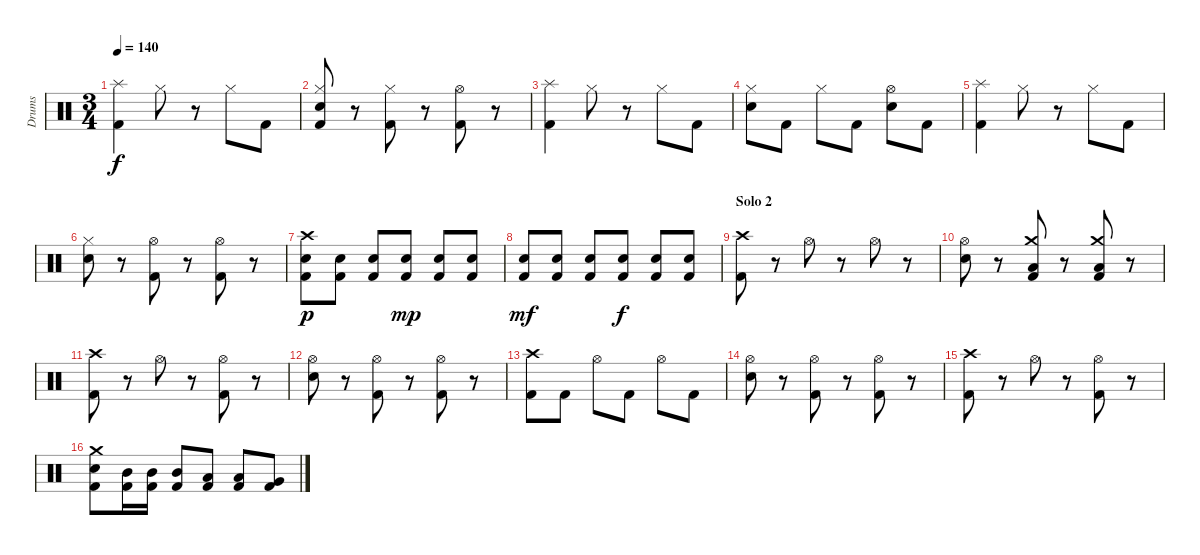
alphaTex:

\track ("Drums" "Drums") {instrument percussion}
\staff {score}
\articulation defaults
\ts (3 4)
\tempo 140
\clef neutral
\ks c
("Splash (hit)" "Kick (hit) 2").4{dy f} "Hi-Hat (closed)".8 r.8 "Hi-Hat (closed)".8 "Kick (hit) 2".8 |
("Hi-Hat (closed)" "Snare (hit) 2" "Kick (hit) 2").8 r.8 ("Hi-Hat (closed)" "Kick (hit) 2").8 r.8 ("Hi-Hat (open)" "Kick (hit) 2").8 r.8 |
("Splash (hit)" "Kick (hit) 2").4 "Hi-Hat (closed)".8 r.8 "Hi-Hat (closed)".8 "Kick (hit) 2".8 |
("Hi-Hat (closed)" "Snare (hit) 2").8 "Kick (hit) 2".8 "Hi-Hat (closed)".8 "Kick (hit) 2".8 ("Hi-Hat (open)" "Snare (hit) 2").8 "Kick (hit) 2".8 |
("Splash (hit)" "Kick (hit) 2").4 "Hi-Hat (closed)".8 r.8 "Hi-Hat (closed)".8 "Kick (hit) 2".8 |
("Hi-Hat (closed)" "Snare (hit) 2").8 r.8 ("Hi-Hat (open)" "Kick (hit) 2").8 r.8 ("Hi-Hat (open)" "Kick (hit) 2").8 r.8 |
\section ("" "")
("Crash high (hit)" "Snare (hit) 2" "Kick (hit) 2").8{dy p} ("Snare (hit) 2" "Kick (hit) 2").8 ("Snare (hit) 2" "Kick (hit) 2").8 ("Snare (hit) 2" "Kick (hit) 2").8{dy mp} ("Snare (hit) 2" "Kick (hit) 2").8 ("Snare (hit) 2" "Kick (hit) 2").8 |
("Snare (hit) 2" "Kick (hit) 2").8{dy mf} ("Snare (hit) 2" "Kick (hit) 2").8 ("Snare (hit) 2" "Kick (hit) 2").8 ("Snare (hit) 2" "Kick (hit) 2").8{dy f} ("Snare (hit) 2" "Kick (hit) 2").8 ("Snare (hit) 2" "Kick (hit) 2").8 |
\section ("" "Solo 2")
("Crash high (hit)" "Kick (hit) 2").8 r.8 "Hi-Hat (open)".8 r.8 "Hi-Hat (open)".8 r.8 |
("Hi-Hat (open)" "Snare (hit) 2").8 r.8 ("Crash medium (hit)" "Low Floor Tom (hit)" "Kick (hit) 2").8 r.8 ("Crash medium (hit)" "Low Floor Tom (hit)" "Kick (hit) 2").8 r.8 |
("Crash high (hit)" "Kick (hit) 2").8 r.8 "Hi-Hat (open)".8 r.8 ("Hi-Hat (open)" "Kick (hit) 2").8 r.8 |
("Hi-Hat (open)" "Snare (hit) 2").8 r.8 ("Hi-Hat (open)" "Kick (hit) 2").8 r.8 ("Hi-Hat (open)" "Kick (hit) 2").8 r.8 |
("Crash high (hit)" "Kick (hit) 2").8 "Kick (hit) 2".8 "Hi-Hat (open)".8 "Kick (hit) 2".8 "Hi-Hat (open)".8 "Kick (hit) 2".8 |
("Hi-Hat (open)" "Snare (hit) 2").8 r.8 ("Hi-Hat (open)" "Kick (hit) 2").8 r.8 ("Hi-Hat (open)" "Kick (hit) 2").8 r.8 |
("Crash high (hit)" "Kick (hit) 2").8 r.8 "Hi-Hat (open)".8 r.8 ("Hi-Hat (open)" "Kick (hit) 2").8 r.8 |
("Crash medium (hit)" "Snare (hit) 2" "Kick (hit) 2").8 ("Mid Tom (hit)" "Kick (hit) 2").16 ("Mid Tom (hit)" "Kick (hit) 2").16 ("Mid Tom (hit)" "Kick (hit) 2").8 ("Low Tom (hit)" "Kick (hit) 2").8 ("Low Tom (hit)" "Kick (hit) 2").8 ("Very Low Tom (hit)" "Kick (hit) 2").8
